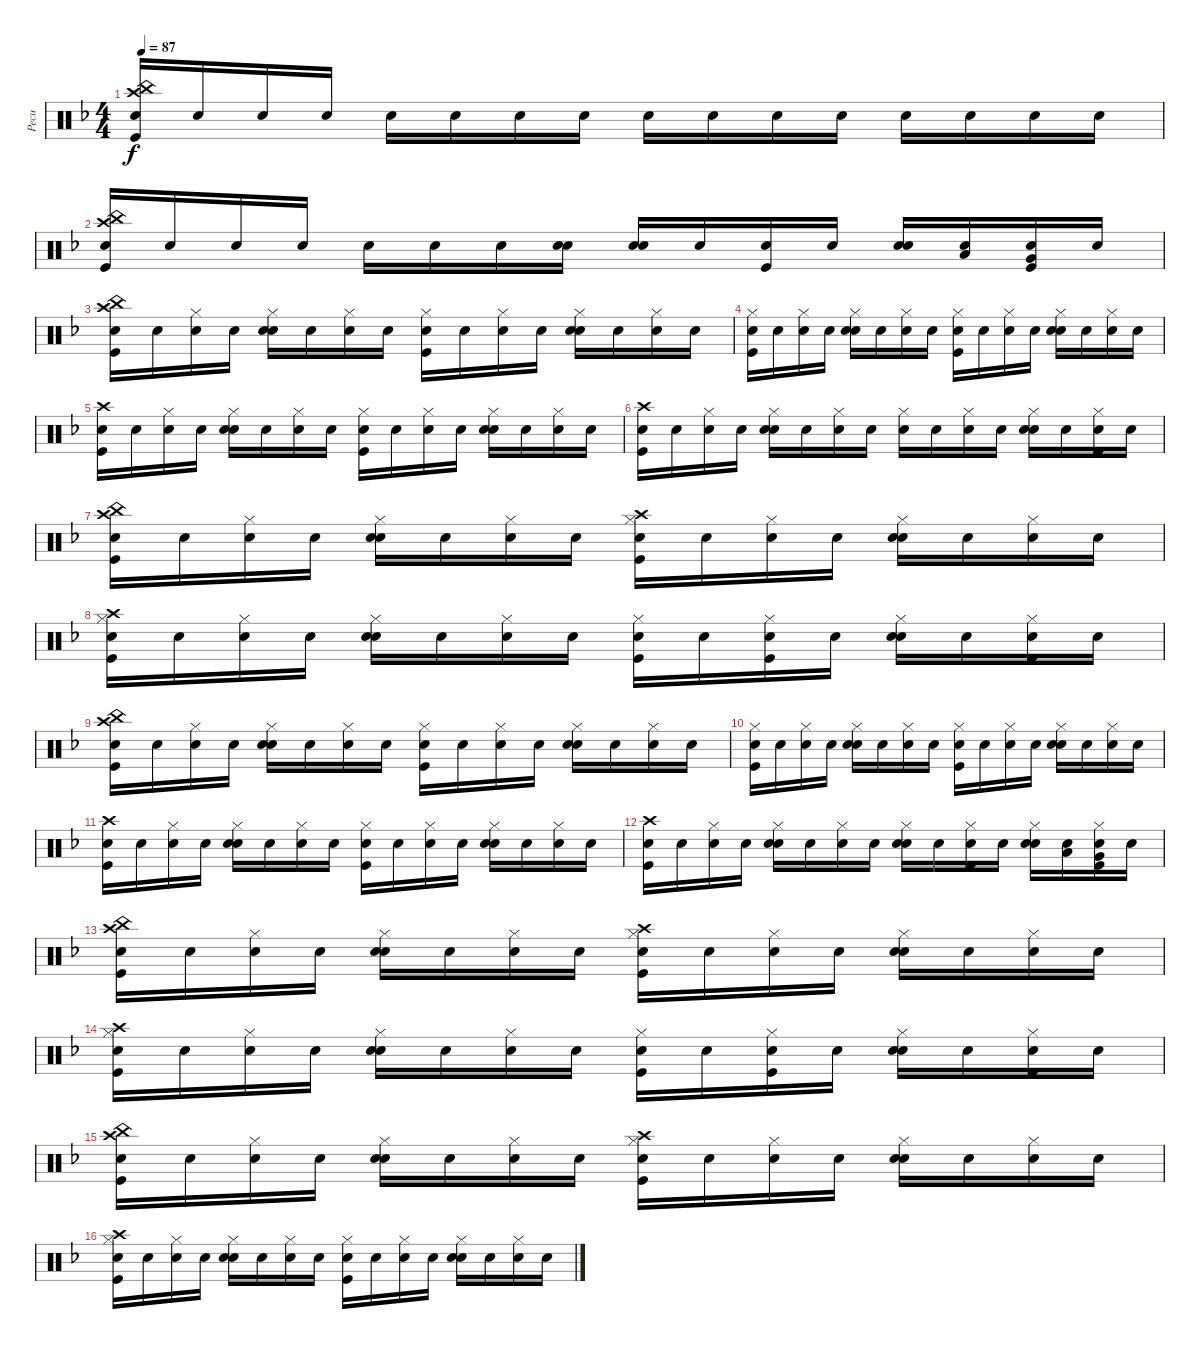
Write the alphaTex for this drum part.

\track ("Pecu" "Pecu") {instrument percussion}
\staff {score}
\articulation defaults
\ts (4 4)
\tempo 87
\clef neutral
\ks dminor
("Snare (hit)" "Crash high (hit)" "China (hit)" "Kick (hit)").16{dy f} "Snare (hit)".16 "Snare (hit)".16 "Snare (hit)".16 "Snare (hit)".16 "Snare (hit)".16 "Snare (hit)".16 "Snare (hit)".16 "Snare (hit)".16 "Snare (hit)".16 "Snare (hit)".16 "Snare (hit)".16 "Snare (hit)".16 "Snare (hit)".16 "Snare (hit)".16 "Snare (hit)".16 |
("Snare (hit)" "Crash high (hit)" "China (hit)" "Kick (hit)").16 "Snare (hit)".16 "Snare (hit)".16 "Snare (hit)".16 "Snare (hit)".16 "Snare (hit)".16 "Snare (hit)".16 ("Snare (hit)" "Snare (hit) 2").16 ("Snare (hit)" "Snare (hit) 2").16 "Snare (hit)".16 ("Snare (hit)" "Kick (hit)").16 "Snare (hit)".16 ("Snare (hit)" "Snare (hit) 2").16 ("Snare (hit)" "Low Tom (hit)").16 ("Snare (hit)" "Very Low Tom (hit)" "Kick (hit)").16 "Snare (hit)".16 |
("Snare (hit)" "Crash high (hit)" "China (hit)" "Kick (hit)").16 "Snare (hit)".16 ("Snare (hit)" "Hi-Hat (closed)").16 "Snare (hit)".16 ("Snare (hit)" "Hi-Hat (closed)" "Snare (hit) 2").16 "Snare (hit)".16 ("Snare (hit)" "Hi-Hat (closed)").16 "Snare (hit)".16 ("Snare (hit)" "Hi-Hat (closed)" "Kick (hit)").16 "Snare (hit)".16 ("Snare (hit)" "Hi-Hat (closed)").16 "Snare (hit)".16 ("Snare (hit)" "Hi-Hat (closed)" "Snare (hit) 2").16 "Snare (hit)".16 ("Snare (hit)" "Hi-Hat (closed)").16 "Snare (hit)".16 |
("Snare (hit)" "Hi-Hat (closed)" "Kick (hit)").16 "Snare (hit)".16 ("Snare (hit)" "Hi-Hat (closed)").16 "Snare (hit)".16 ("Snare (hit)" "Hi-Hat (closed)" "Snare (hit) 2").16 "Snare (hit)".16 ("Snare (hit)" "Hi-Hat (closed)").16 "Snare (hit)".16 ("Snare (hit)" "Hi-Hat (closed)" "Kick (hit)").16 "Snare (hit)".16 ("Snare (hit)" "Hi-Hat (closed)").16 "Snare (hit)".16 ("Snare (hit)" "Hi-Hat (closed)" "Snare (hit) 2").16 "Snare (hit)".16 ("Snare (hit)" "Hi-Hat (closed)").16 "Snare (hit)".16 |
("Snare (hit)" "Crash high (hit)" "Kick (hit)").16 "Snare (hit)".16 ("Snare (hit)" "Hi-Hat (closed)").16 "Snare (hit)".16 ("Snare (hit)" "Hi-Hat (closed)" "Snare (hit) 2").16 "Snare (hit)".16 ("Snare (hit)" "Hi-Hat (closed)").16 "Snare (hit)".16 ("Snare (hit)" "Hi-Hat (closed)" "Kick (hit)").16 "Snare (hit)".16 ("Snare (hit)" "Hi-Hat (closed)").16 "Snare (hit)".16 ("Snare (hit)" "Hi-Hat (closed)" "Snare (hit) 2").16 "Snare (hit)".16 ("Snare (hit)" "Hi-Hat (closed)").16 "Snare (hit)".16 |
("Snare (hit)" "Crash high (hit)" "Kick (hit)").16 "Snare (hit)".16 ("Snare (hit)" "Hi-Hat (closed)").16 "Snare (hit)".16 ("Snare (hit)" "Hi-Hat (closed)" "Snare (hit) 2").16 "Snare (hit)".16 ("Snare (hit)" "Hi-Hat (closed)").16 "Snare (hit)".16 ("Snare (hit)" "Hi-Hat (closed)").16 "Snare (hit)".16 ("Snare (hit)" "Hi-Hat (closed)").16 "Snare (hit)".16 ("Snare (hit)" "Hi-Hat (closed)" "Snare (hit) 2").16 "Snare (hit)".16 ("Snare (hit)" "Hi-Hat (closed)" "Kick (hit)").16 "Snare (hit)".16 |
("Snare (hit)" "Crash high (hit)" "China (hit)" "Kick (hit)").16 "Snare (hit)".16 ("Snare (hit)" "Hi-Hat (closed)").16 "Snare (hit)".16 ("Snare (hit)" "Hi-Hat (closed)" "Snare (hit) 2").16 "Snare (hit)".16 ("Snare (hit)" "Hi-Hat (closed)").16 "Snare (hit)".16 ("Snare (hit)" "Hi-Hat (closed)" "Crash high (hit)" "Kick (hit)").16 "Snare (hit)".16 ("Snare (hit)" "Hi-Hat (closed)").16 "Snare (hit)".16 ("Snare (hit)" "Hi-Hat (closed)" "Snare (hit) 2").16 "Snare (hit)".16 ("Snare (hit)" "Hi-Hat (closed)").16 "Snare (hit)".16 |
("Snare (hit)" "Hi-Hat (closed)" "Crash high (hit)" "Kick (hit)").16 "Snare (hit)".16 ("Snare (hit)" "Hi-Hat (closed)").16 "Snare (hit)".16 ("Snare (hit)" "Hi-Hat (closed)" "Snare (hit) 2").16 "Snare (hit)".16 ("Snare (hit)" "Hi-Hat (closed)").16 "Snare (hit)".16 ("Snare (hit)" "Hi-Hat (closed)" "Kick (hit)").16 "Snare (hit)".16 ("Snare (hit)" "Hi-Hat (closed)" "Kick (hit)").16 "Snare (hit)".16 ("Snare (hit)" "Hi-Hat (closed)" "Snare (hit) 2").16 "Snare (hit)".16 ("Snare (hit)" "Hi-Hat (closed)" "Kick (hit)").16 "Snare (hit)".16 |
("Snare (hit)" "Crash high (hit)" "China (hit)" "Kick (hit)").16 "Snare (hit)".16 ("Snare (hit)" "Hi-Hat (closed)").16 "Snare (hit)".16 ("Snare (hit)" "Hi-Hat (closed)" "Snare (hit) 2").16 "Snare (hit)".16 ("Snare (hit)" "Hi-Hat (closed)").16 "Snare (hit)".16 ("Snare (hit)" "Hi-Hat (closed)" "Kick (hit)").16 "Snare (hit)".16 ("Snare (hit)" "Hi-Hat (closed)").16 "Snare (hit)".16 ("Snare (hit)" "Hi-Hat (closed)" "Snare (hit) 2").16 "Snare (hit)".16 ("Snare (hit)" "Hi-Hat (closed)").16 "Snare (hit)".16 |
("Snare (hit)" "Hi-Hat (closed)" "Kick (hit)").16 "Snare (hit)".16 ("Snare (hit)" "Hi-Hat (closed)").16 "Snare (hit)".16 ("Snare (hit)" "Hi-Hat (closed)" "Snare (hit) 2").16 "Snare (hit)".16 ("Snare (hit)" "Hi-Hat (closed)").16 "Snare (hit)".16 ("Snare (hit)" "Hi-Hat (closed)" "Kick (hit)").16 "Snare (hit)".16 ("Snare (hit)" "Hi-Hat (closed)").16 "Snare (hit)".16 ("Snare (hit)" "Hi-Hat (closed)" "Snare (hit) 2").16 "Snare (hit)".16 ("Snare (hit)" "Hi-Hat (closed)").16 "Snare (hit)".16 |
("Snare (hit)" "Crash high (hit)" "Kick (hit)").16 "Snare (hit)".16 ("Snare (hit)" "Hi-Hat (closed)").16 "Snare (hit)".16 ("Snare (hit)" "Hi-Hat (closed)" "Snare (hit) 2").16 "Snare (hit)".16 ("Snare (hit)" "Hi-Hat (closed)").16 "Snare (hit)".16 ("Snare (hit)" "Hi-Hat (closed)" "Kick (hit)").16 "Snare (hit)".16 ("Snare (hit)" "Hi-Hat (closed)").16 "Snare (hit)".16 ("Snare (hit)" "Hi-Hat (closed)" "Snare (hit) 2").16 "Snare (hit)".16 ("Snare (hit)" "Hi-Hat (closed)").16 "Snare (hit)".16 |
("Snare (hit)" "Crash high (hit)" "Kick (hit)").16 "Snare (hit)".16 ("Snare (hit)" "Hi-Hat (closed)").16 "Snare (hit)".16 ("Snare (hit)" "Hi-Hat (closed)" "Snare (hit) 2").16 "Snare (hit)".16 ("Snare (hit)" "Hi-Hat (closed)").16 "Snare (hit)".16 ("Snare (hit)" "Hi-Hat (closed)" "Snare (hit) 2").16 "Snare (hit)".16 ("Snare (hit)" "Hi-Hat (closed)" "Kick (hit)").16 "Snare (hit)".16 ("Snare (hit)" "Hi-Hat (closed)" "Snare (hit) 2").16 ("Snare (hit)" "Low Tom (hit)").16 ("Snare (hit)" "Hi-Hat (closed)" "Very Low Tom (hit)" "Kick (hit)").16 "Snare (hit)".16 |
("Snare (hit)" "Crash high (hit)" "China (hit)" "Kick (hit)").16 "Snare (hit)".16 ("Snare (hit)" "Hi-Hat (closed)").16 "Snare (hit)".16 ("Snare (hit)" "Hi-Hat (closed)" "Snare (hit) 2").16 "Snare (hit)".16 ("Snare (hit)" "Hi-Hat (closed)").16 "Snare (hit)".16 ("Snare (hit)" "Hi-Hat (closed)" "Crash high (hit)" "Kick (hit)").16 "Snare (hit)".16 ("Snare (hit)" "Hi-Hat (closed)").16 "Snare (hit)".16 ("Snare (hit)" "Hi-Hat (closed)" "Snare (hit) 2").16 "Snare (hit)".16 ("Snare (hit)" "Hi-Hat (closed)").16 "Snare (hit)".16 |
("Snare (hit)" "Hi-Hat (closed)" "Crash high (hit)" "Kick (hit)").16 "Snare (hit)".16 ("Snare (hit)" "Hi-Hat (closed)").16 "Snare (hit)".16 ("Snare (hit)" "Hi-Hat (closed)" "Snare (hit) 2").16 "Snare (hit)".16 ("Snare (hit)" "Hi-Hat (closed)").16 "Snare (hit)".16 ("Snare (hit)" "Hi-Hat (closed)" "Kick (hit)").16 "Snare (hit)".16 ("Snare (hit)" "Hi-Hat (closed)" "Kick (hit)").16 "Snare (hit)".16 ("Snare (hit)" "Hi-Hat (closed)" "Snare (hit) 2").16 "Snare (hit)".16 ("Snare (hit)" "Hi-Hat (closed)" "Kick (hit)").16 "Snare (hit)".16 |
("Snare (hit)" "Crash high (hit)" "China (hit)" "Kick (hit)").16 "Snare (hit)".16 ("Snare (hit)" "Hi-Hat (closed)").16 "Snare (hit)".16 ("Snare (hit)" "Hi-Hat (closed)" "Snare (hit) 2").16 "Snare (hit)".16 ("Snare (hit)" "Hi-Hat (closed)").16 "Snare (hit)".16 ("Snare (hit)" "Hi-Hat (closed)" "Crash high (hit)" "Kick (hit)").16 "Snare (hit)".16 ("Snare (hit)" "Hi-Hat (closed)").16 "Snare (hit)".16 ("Snare (hit)" "Hi-Hat (closed)" "Snare (hit) 2").16 "Snare (hit)".16 ("Snare (hit)" "Hi-Hat (closed)").16 "Snare (hit)".16 |
("Snare (hit)" "Hi-Hat (closed)" "Crash high (hit)" "Kick (hit)").16 "Snare (hit)".16 ("Snare (hit)" "Hi-Hat (closed)").16 "Snare (hit)".16 ("Snare (hit)" "Hi-Hat (closed)" "Snare (hit) 2").16 "Snare (hit)".16 ("Snare (hit)" "Hi-Hat (closed)").16 "Snare (hit)".16 ("Snare (hit)" "Hi-Hat (closed)" "Kick (hit)").16 "Snare (hit)".16 ("Snare (hit)" "Hi-Hat (closed)").16 "Snare (hit)".16 ("Snare (hit)" "Hi-Hat (closed)" "Snare (hit) 2").16 "Snare (hit)".16 ("Snare (hit)" "Hi-Hat (closed)").16 "Snare (hit)".16
